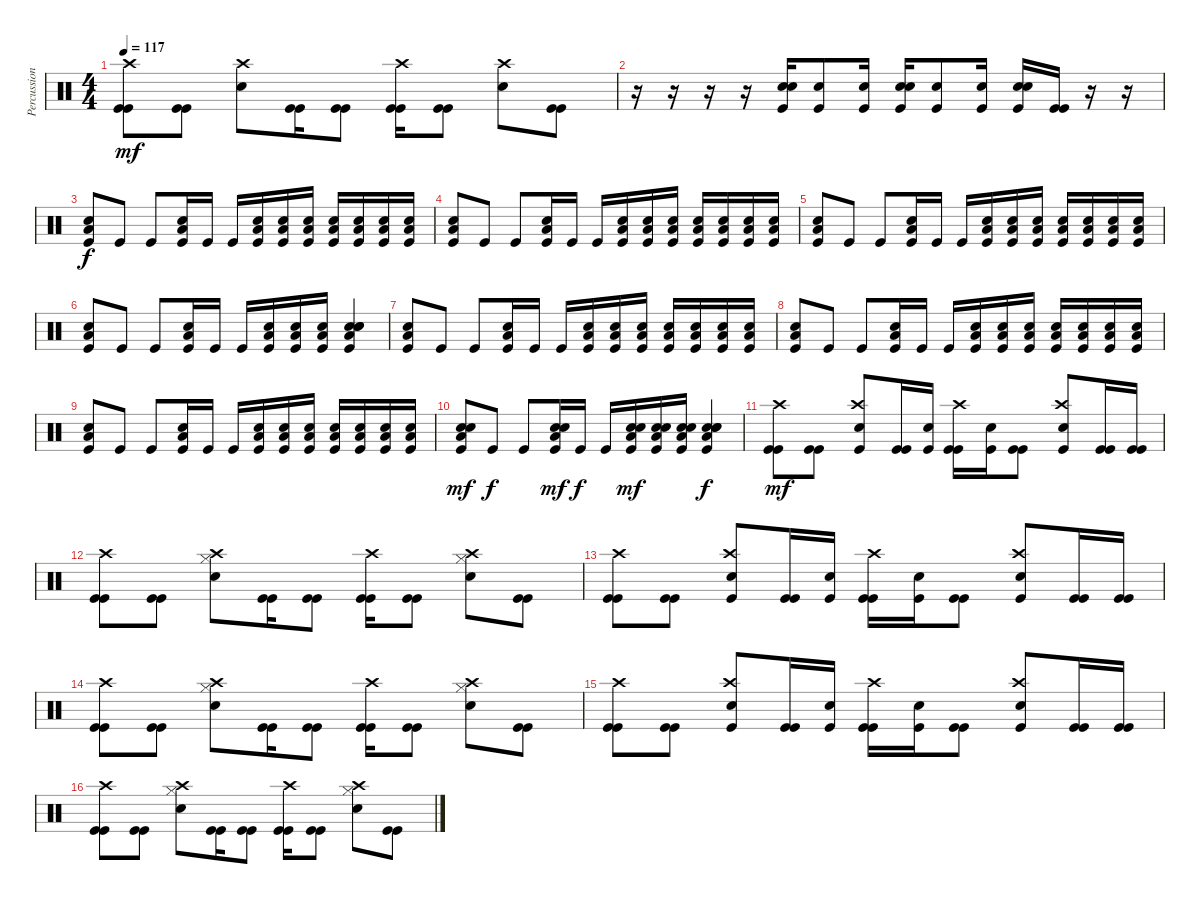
\track ("Percussion" "Percussion") {instrument percussion}
\staff {score}
\articulation defaults
\ts (4 4)
\tempo 117
\clef neutral
\ks c
("Kick (hit)" "Kick (hit)" "Crash high (hit)").8{dy mf} ("Kick (hit)" "Kick (hit)").8 ("Electric Snare (hit)" "Crash high (hit)").8 ("Kick (hit)" "Kick (hit)").16 ("Kick (hit)" "Kick (hit)").8 ("Kick (hit)" "Kick (hit)" "Crash high (hit)").16 ("Kick (hit)" "Kick (hit)").8 ("Electric Snare (hit)" "Crash high (hit)").8 ("Kick (hit)" "Kick (hit)").8 |
r.16 r.16 r.16 r.16 ("Electric Snare (hit)" "Kick (hit)" "Hand Clap (hit)").16 ("Kick (hit)" "Hand Clap (hit)").8 ("Kick (hit)" "Hand Clap (hit)").16 ("Electric Snare (hit)" "Kick (hit)" "Hand Clap (hit)").16 ("Kick (hit)" "Hand Clap (hit)").8 ("Kick (hit)" "Hand Clap (hit)").16 ("Electric Snare (hit)" "Kick (hit)" "Hand Clap (hit)").16 ("Kick (hit)" "Kick (hit)").16 r.16 r.16 |
("Kick (hit)" "Low Floor Tom (hit)" "Hand Clap (hit)").8{dy f} "Kick (hit)".8 "Kick (hit)".8 ("Kick (hit)" "Low Floor Tom (hit)" "Hand Clap (hit)").16 "Kick (hit)".16 "Kick (hit)".16 ("Kick (hit)" "Low Floor Tom (hit)" "Hand Clap (hit)").16 ("Kick (hit)" "Low Floor Tom (hit)" "Hand Clap (hit)").16 ("Kick (hit)" "Low Floor Tom (hit)" "Hand Clap (hit)").16 ("Kick (hit)" "Low Floor Tom (hit)" "Hand Clap (hit)").16 ("Kick (hit)" "Low Floor Tom (hit)" "Hand Clap (hit)").16 ("Kick (hit)" "Low Floor Tom (hit)" "Hand Clap (hit)").16 ("Kick (hit)" "Low Floor Tom (hit)" "Hand Clap (hit)").16 |
("Kick (hit)" "Low Floor Tom (hit)" "Hand Clap (hit)").8 "Kick (hit)".8 "Kick (hit)".8 ("Kick (hit)" "Low Floor Tom (hit)" "Hand Clap (hit)").16 "Kick (hit)".16 "Kick (hit)".16 ("Kick (hit)" "Low Floor Tom (hit)" "Hand Clap (hit)").16 ("Kick (hit)" "Low Floor Tom (hit)" "Hand Clap (hit)").16 ("Kick (hit)" "Low Floor Tom (hit)" "Hand Clap (hit)").16 ("Kick (hit)" "Low Floor Tom (hit)" "Hand Clap (hit)").16 ("Kick (hit)" "Low Floor Tom (hit)" "Hand Clap (hit)").16 ("Kick (hit)" "Low Floor Tom (hit)" "Hand Clap (hit)").16 ("Kick (hit)" "Low Floor Tom (hit)" "Hand Clap (hit)").16 |
("Kick (hit)" "Low Floor Tom (hit)" "Hand Clap (hit)").8 "Kick (hit)".8 "Kick (hit)".8 ("Kick (hit)" "Low Floor Tom (hit)" "Hand Clap (hit)").16 "Kick (hit)".16 "Kick (hit)".16 ("Kick (hit)" "Low Floor Tom (hit)" "Hand Clap (hit)").16 ("Kick (hit)" "Low Floor Tom (hit)" "Hand Clap (hit)").16 ("Kick (hit)" "Low Floor Tom (hit)" "Hand Clap (hit)").16 ("Kick (hit)" "Low Floor Tom (hit)" "Hand Clap (hit)").16 ("Kick (hit)" "Low Floor Tom (hit)" "Hand Clap (hit)").16 ("Kick (hit)" "Low Floor Tom (hit)" "Hand Clap (hit)").16 ("Kick (hit)" "Low Floor Tom (hit)" "Hand Clap (hit)").16 |
("Kick (hit)" "Low Floor Tom (hit)" "Hand Clap (hit)").8 "Kick (hit)".8 "Kick (hit)".8 ("Kick (hit)" "Low Floor Tom (hit)" "Hand Clap (hit)").16 "Kick (hit)".16 "Kick (hit)".16 ("Kick (hit)" "Low Floor Tom (hit)" "Hand Clap (hit)").16 ("Kick (hit)" "Low Floor Tom (hit)" "Hand Clap (hit)").16 ("Kick (hit)" "Low Floor Tom (hit)" "Hand Clap (hit)").16 ("Kick (hit)" "Snare (hit) 2" "Low Floor Tom (hit)" "Hand Clap (hit)" "Snare (hit) 2").4 |
("Kick (hit)" "Low Floor Tom (hit)" "Hand Clap (hit)").8 "Kick (hit)".8 "Kick (hit)".8 ("Kick (hit)" "Low Floor Tom (hit)" "Hand Clap (hit)").16 "Kick (hit)".16 "Kick (hit)".16 ("Kick (hit)" "Low Floor Tom (hit)" "Hand Clap (hit)").16 ("Kick (hit)" "Low Floor Tom (hit)" "Hand Clap (hit)").16 ("Kick (hit)" "Low Floor Tom (hit)" "Hand Clap (hit)").16 ("Kick (hit)" "Low Floor Tom (hit)" "Hand Clap (hit)").16 ("Kick (hit)" "Low Floor Tom (hit)" "Hand Clap (hit)").16 ("Kick (hit)" "Low Floor Tom (hit)" "Hand Clap (hit)").16 ("Kick (hit)" "Low Floor Tom (hit)" "Hand Clap (hit)").16 |
("Kick (hit)" "Low Floor Tom (hit)" "Hand Clap (hit)").8 "Kick (hit)".8 "Kick (hit)".8 ("Kick (hit)" "Low Floor Tom (hit)" "Hand Clap (hit)").16 "Kick (hit)".16 "Kick (hit)".16 ("Kick (hit)" "Low Floor Tom (hit)" "Hand Clap (hit)").16 ("Kick (hit)" "Low Floor Tom (hit)" "Hand Clap (hit)").16 ("Kick (hit)" "Low Floor Tom (hit)" "Hand Clap (hit)").16 ("Kick (hit)" "Low Floor Tom (hit)" "Hand Clap (hit)").16 ("Kick (hit)" "Low Floor Tom (hit)" "Hand Clap (hit)").16 ("Kick (hit)" "Low Floor Tom (hit)" "Hand Clap (hit)").16 ("Kick (hit)" "Low Floor Tom (hit)" "Hand Clap (hit)").16 |
("Kick (hit)" "Low Floor Tom (hit)" "Hand Clap (hit)").8 "Kick (hit)".8 "Kick (hit)".8 ("Kick (hit)" "Low Floor Tom (hit)" "Hand Clap (hit)").16 "Kick (hit)".16 "Kick (hit)".16 ("Kick (hit)" "Low Floor Tom (hit)" "Hand Clap (hit)").16 ("Kick (hit)" "Low Floor Tom (hit)" "Hand Clap (hit)").16 ("Kick (hit)" "Low Floor Tom (hit)" "Hand Clap (hit)").16 ("Kick (hit)" "Low Floor Tom (hit)" "Hand Clap (hit)").16 ("Kick (hit)" "Low Floor Tom (hit)" "Hand Clap (hit)").16 ("Kick (hit)" "Low Floor Tom (hit)" "Hand Clap (hit)").16 ("Kick (hit)" "Low Floor Tom (hit)" "Hand Clap (hit)").16 |
("Kick (hit)" "Electric Snare (hit)" "Low Floor Tom (hit)" "Hand Clap (hit)").8{dy mf} "Kick (hit)".8{dy f} "Kick (hit)".8 ("Kick (hit)" "Electric Snare (hit)" "Low Floor Tom (hit)" "Hand Clap (hit)").16{dy mf} "Kick (hit)".16{dy f} "Kick (hit)".16 ("Kick (hit)" "Electric Snare (hit)" "Low Floor Tom (hit)" "Hand Clap (hit)").16{dy mf} ("Kick (hit)" "Electric Snare (hit)" "Low Floor Tom (hit)" "Hand Clap (hit)").16 ("Kick (hit)" "Electric Snare (hit)" "Low Floor Tom (hit)" "Hand Clap (hit)").16 ("Kick (hit)" "Snare (hit) 2" "Low Floor Tom (hit)" "Hand Clap (hit)" "Snare (hit) 2").4{dy f} |
("Crash high (hit)" "Kick (hit)" "Kick (hit)").8{dy mf} ("Kick (hit)" "Kick (hit)").8 ("Crash high (hit)" "Kick (hit)" "Electric Snare (hit)").8 ("Kick (hit)" "Kick (hit)").16 ("Kick (hit)" "Electric Snare (hit)").16 ("Crash high (hit)" "Kick (hit)" "Kick (hit)").16 ("Kick (hit)" "Electric Snare (hit)").16 ("Kick (hit)" "Kick (hit)").8 ("Crash high (hit)" "Kick (hit)" "Electric Snare (hit)").8 ("Kick (hit)" "Kick (hit)").16 ("Kick (hit)" "Kick (hit)").16 |
("Kick (hit)" "Kick (hit)" "Crash high (hit)").8 ("Kick (hit)" "Kick (hit)").8 ("Electric Snare (hit)" "Hi-Hat (closed)" "Crash high (hit)").8 ("Kick (hit)" "Kick (hit)").16 ("Kick (hit)" "Kick (hit)").8 ("Kick (hit)" "Kick (hit)" "Crash high (hit)").16 ("Kick (hit)" "Kick (hit)").8 ("Electric Snare (hit)" "Hi-Hat (closed)" "Crash high (hit)").8 ("Kick (hit)" "Kick (hit)").8 |
("Crash high (hit)" "Kick (hit)" "Kick (hit)").8 ("Kick (hit)" "Kick (hit)").8 ("Crash high (hit)" "Kick (hit)" "Electric Snare (hit)").8 ("Kick (hit)" "Kick (hit)").16 ("Kick (hit)" "Electric Snare (hit)").16 ("Crash high (hit)" "Kick (hit)" "Kick (hit)").16 ("Kick (hit)" "Electric Snare (hit)").16 ("Kick (hit)" "Kick (hit)").8 ("Crash high (hit)" "Kick (hit)" "Electric Snare (hit)").8 ("Kick (hit)" "Kick (hit)").16 ("Kick (hit)" "Kick (hit)").16 |
("Kick (hit)" "Kick (hit)" "Crash high (hit)").8 ("Kick (hit)" "Kick (hit)").8 ("Electric Snare (hit)" "Hi-Hat (closed)" "Crash high (hit)").8 ("Kick (hit)" "Kick (hit)").16 ("Kick (hit)" "Kick (hit)").8 ("Kick (hit)" "Kick (hit)" "Crash high (hit)").16 ("Kick (hit)" "Kick (hit)").8 ("Electric Snare (hit)" "Hi-Hat (closed)" "Crash high (hit)").8 ("Kick (hit)" "Kick (hit)").8 |
("Crash high (hit)" "Kick (hit)" "Kick (hit)").8 ("Kick (hit)" "Kick (hit)").8 ("Crash high (hit)" "Kick (hit)" "Electric Snare (hit)").8 ("Kick (hit)" "Kick (hit)").16 ("Kick (hit)" "Electric Snare (hit)").16 ("Crash high (hit)" "Kick (hit)" "Kick (hit)").16 ("Kick (hit)" "Electric Snare (hit)").16 ("Kick (hit)" "Kick (hit)").8 ("Crash high (hit)" "Kick (hit)" "Electric Snare (hit)").8 ("Kick (hit)" "Kick (hit)").16 ("Kick (hit)" "Kick (hit)").16 |
("Kick (hit)" "Kick (hit)" "Crash high (hit)").8 ("Kick (hit)" "Kick (hit)").8 ("Electric Snare (hit)" "Hi-Hat (closed)" "Crash high (hit)").8 ("Kick (hit)" "Kick (hit)").16 ("Kick (hit)" "Kick (hit)").8 ("Kick (hit)" "Kick (hit)" "Crash high (hit)").16 ("Kick (hit)" "Kick (hit)").8 ("Electric Snare (hit)" "Hi-Hat (closed)" "Crash high (hit)").8 ("Kick (hit)" "Kick (hit)").8
